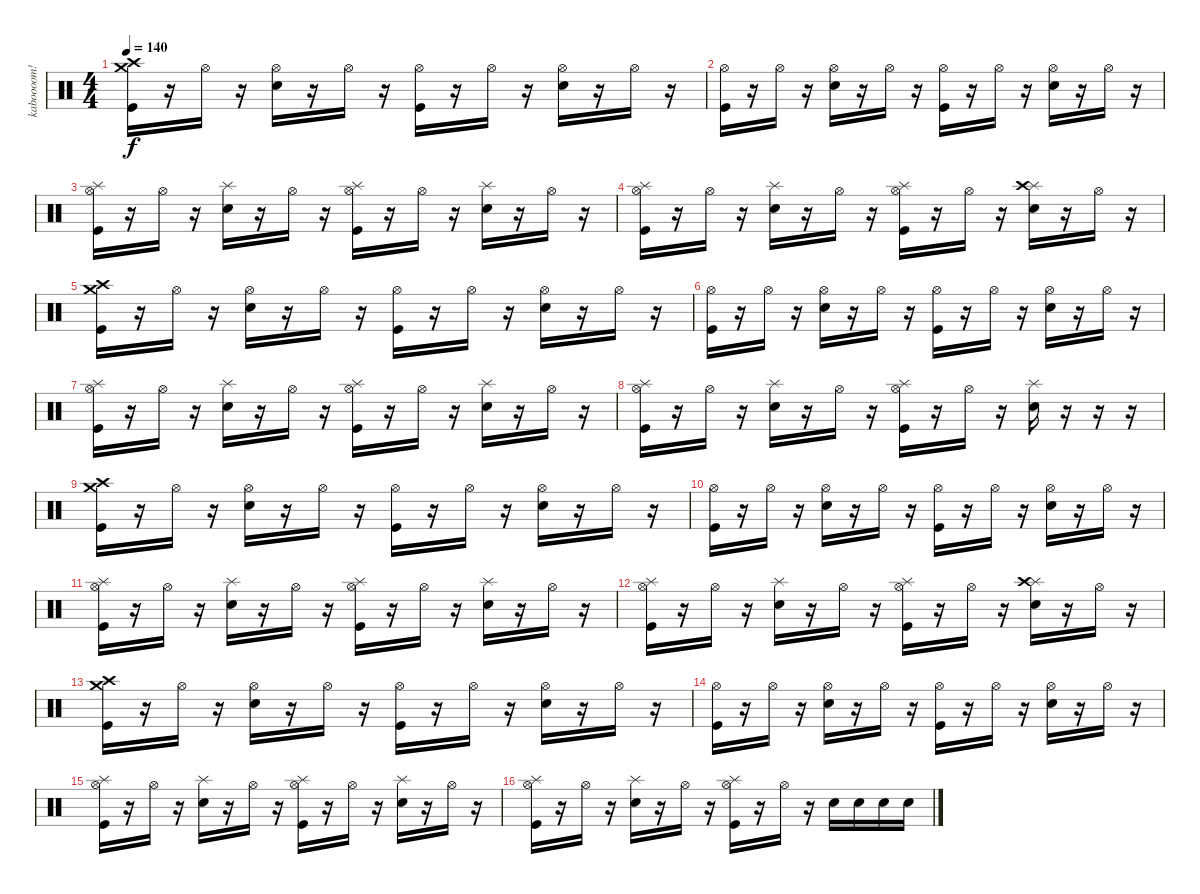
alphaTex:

\track ("kaboooom!" "kaboooom!") {instrument percussion}
\staff {score}
\articulation defaults
\ts (4 4)
\tempo 140
\clef neutral
\ks c
("Crash high (hit)" "Crash medium (hit)" "Kick (hit)").16{dy f} r.16 "Hi-Hat (open)".16 r.16 ("Hi-Hat (open)" "Electric Snare (hit)").16 r.16 "Hi-Hat (open)".16 r.16 ("Hi-Hat (open)" "Kick (hit)").16 r.16 "Hi-Hat (open)".16 r.16 ("Hi-Hat (open)" "Electric Snare (hit)").16 r.16 "Hi-Hat (open)".16 r.16 |
("Hi-Hat (open)" "Kick (hit)").16 r.16 "Hi-Hat (open)".16 r.16 ("Hi-Hat (open)" "Electric Snare (hit)").16 r.16 "Hi-Hat (open)".16 r.16 ("Hi-Hat (open)" "Kick (hit)").16 r.16 "Hi-Hat (open)".16 r.16 ("Hi-Hat (open)" "Electric Snare (hit)").16 r.16 "Hi-Hat (open)".16 r.16 |
("Splash (hit)" "Hi-Hat (open)" "Kick (hit)").16 r.16 "Hi-Hat (open)".16 r.16 ("Splash (hit)" "Electric Snare (hit)").16 r.16 "Hi-Hat (open)".16 r.16 ("Splash (hit)" "Hi-Hat (open)" "Kick (hit)").16 r.16 "Hi-Hat (open)".16 r.16 ("Splash (hit)" "Electric Snare (hit)").16 r.16 "Hi-Hat (open)".16 r.16 |
("Splash (hit)" "Hi-Hat (open)" "Kick (hit)").16 r.16 "Hi-Hat (open)".16 r.16 ("Splash (hit)" "Electric Snare (hit)").16 r.16 "Hi-Hat (open)".16 r.16 ("Splash (hit)" "Hi-Hat (open)" "Kick (hit)").16 r.16 "Hi-Hat (open)".16 r.16 ("Splash (hit)" "Crash high (hit)" "Electric Snare (hit)").16 r.16 "Hi-Hat (open)".16 r.16 |
("Crash high (hit)" "Crash medium (hit)" "Kick (hit)").16 r.16 "Hi-Hat (open)".16 r.16 ("Hi-Hat (open)" "Electric Snare (hit)").16 r.16 "Hi-Hat (open)".16 r.16 ("Hi-Hat (open)" "Kick (hit)").16 r.16 "Hi-Hat (open)".16 r.16 ("Hi-Hat (open)" "Electric Snare (hit)").16 r.16 "Hi-Hat (open)".16 r.16 |
("Hi-Hat (open)" "Kick (hit)").16 r.16 "Hi-Hat (open)".16 r.16 ("Hi-Hat (open)" "Electric Snare (hit)").16 r.16 "Hi-Hat (open)".16 r.16 ("Hi-Hat (open)" "Kick (hit)").16 r.16 "Hi-Hat (open)".16 r.16 ("Hi-Hat (open)" "Electric Snare (hit)").16 r.16 "Hi-Hat (open)".16 r.16 |
("Splash (hit)" "Hi-Hat (open)" "Kick (hit)").16 r.16 "Hi-Hat (open)".16 r.16 ("Splash (hit)" "Electric Snare (hit)").16 r.16 "Hi-Hat (open)".16 r.16 ("Splash (hit)" "Hi-Hat (open)" "Kick (hit)").16 r.16 "Hi-Hat (open)".16 r.16 ("Splash (hit)" "Electric Snare (hit)").16 r.16 "Hi-Hat (open)".16 r.16 |
("Splash (hit)" "Hi-Hat (open)" "Kick (hit)").16 r.16 "Hi-Hat (open)".16 r.16 ("Splash (hit)" "Electric Snare (hit)").16 r.16 "Hi-Hat (open)".16 r.16 ("Splash (hit)" "Hi-Hat (open)" "Kick (hit)").16 r.16 "Hi-Hat (open)".16 r.16 ("Splash (hit)" "Electric Snare (hit)").16 r.16 r.16 r.16 |
("Crash high (hit)" "Crash medium (hit)" "Kick (hit)").16 r.16 "Hi-Hat (open)".16 r.16 ("Hi-Hat (open)" "Electric Snare (hit)").16 r.16 "Hi-Hat (open)".16 r.16 ("Hi-Hat (open)" "Kick (hit)").16 r.16 "Hi-Hat (open)".16 r.16 ("Hi-Hat (open)" "Electric Snare (hit)").16 r.16 "Hi-Hat (open)".16 r.16 |
("Hi-Hat (open)" "Kick (hit)").16 r.16 "Hi-Hat (open)".16 r.16 ("Hi-Hat (open)" "Electric Snare (hit)").16 r.16 "Hi-Hat (open)".16 r.16 ("Hi-Hat (open)" "Kick (hit)").16 r.16 "Hi-Hat (open)".16 r.16 ("Hi-Hat (open)" "Electric Snare (hit)").16 r.16 "Hi-Hat (open)".16 r.16 |
("Splash (hit)" "Hi-Hat (open)" "Kick (hit)").16 r.16 "Hi-Hat (open)".16 r.16 ("Splash (hit)" "Electric Snare (hit)").16 r.16 "Hi-Hat (open)".16 r.16 ("Splash (hit)" "Hi-Hat (open)" "Kick (hit)").16 r.16 "Hi-Hat (open)".16 r.16 ("Splash (hit)" "Electric Snare (hit)").16 r.16 "Hi-Hat (open)".16 r.16 |
("Splash (hit)" "Hi-Hat (open)" "Kick (hit)").16 r.16 "Hi-Hat (open)".16 r.16 ("Splash (hit)" "Electric Snare (hit)").16 r.16 "Hi-Hat (open)".16 r.16 ("Splash (hit)" "Hi-Hat (open)" "Kick (hit)").16 r.16 "Hi-Hat (open)".16 r.16 ("Splash (hit)" "Crash high (hit)" "Electric Snare (hit)").16 r.16 "Hi-Hat (open)".16 r.16 |
("Crash high (hit)" "Crash medium (hit)" "Kick (hit)").16 r.16 "Hi-Hat (open)".16 r.16 ("Hi-Hat (open)" "Electric Snare (hit)").16 r.16 "Hi-Hat (open)".16 r.16 ("Hi-Hat (open)" "Kick (hit)").16 r.16 "Hi-Hat (open)".16 r.16 ("Hi-Hat (open)" "Electric Snare (hit)").16 r.16 "Hi-Hat (open)".16 r.16 |
("Hi-Hat (open)" "Kick (hit)").16 r.16 "Hi-Hat (open)".16 r.16 ("Hi-Hat (open)" "Electric Snare (hit)").16 r.16 "Hi-Hat (open)".16 r.16 ("Hi-Hat (open)" "Kick (hit)").16 r.16 "Hi-Hat (open)".16 r.16 ("Hi-Hat (open)" "Electric Snare (hit)").16 r.16 "Hi-Hat (open)".16 r.16 |
("Splash (hit)" "Hi-Hat (open)" "Kick (hit)").16 r.16 "Hi-Hat (open)".16 r.16 ("Splash (hit)" "Electric Snare (hit)").16 r.16 "Hi-Hat (open)".16 r.16 ("Splash (hit)" "Hi-Hat (open)" "Kick (hit)").16 r.16 "Hi-Hat (open)".16 r.16 ("Splash (hit)" "Electric Snare (hit)").16 r.16 "Hi-Hat (open)".16 r.16 |
("Splash (hit)" "Hi-Hat (open)" "Kick (hit)").16 r.16 "Hi-Hat (open)".16 r.16 ("Splash (hit)" "Electric Snare (hit)").16 r.16 "Hi-Hat (open)".16 r.16 ("Splash (hit)" "Hi-Hat (open)" "Kick (hit)").16 r.16 "Hi-Hat (open)".16 r.16 "Electric Snare (hit)".16 "Electric Snare (hit)".16 "Electric Snare (hit)".16 "Electric Snare (hit)".16
